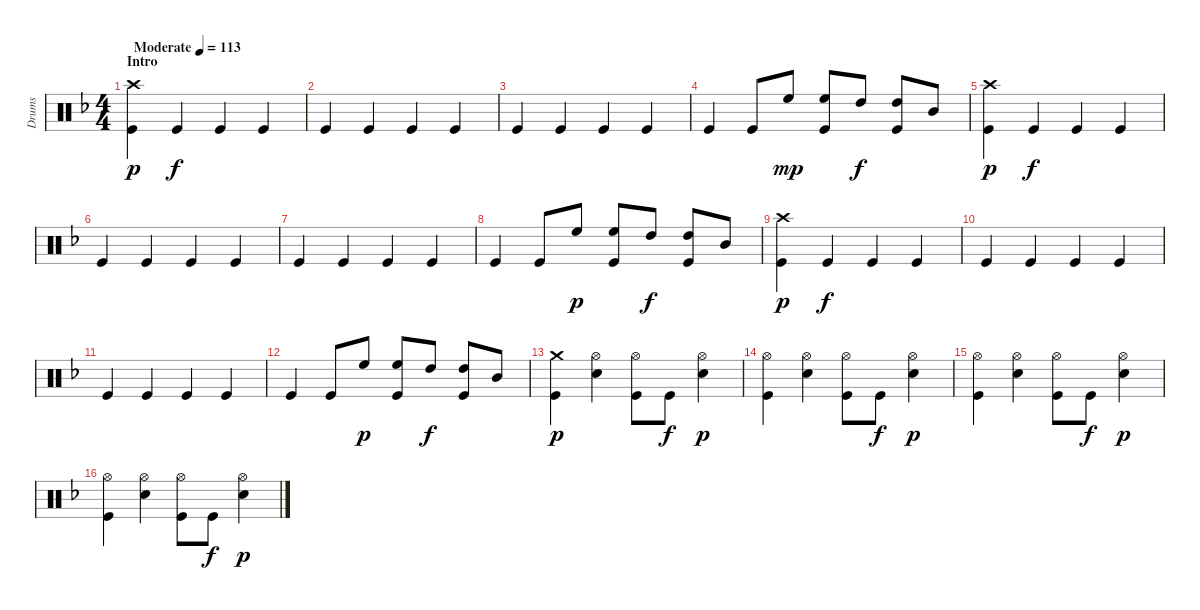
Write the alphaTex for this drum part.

\track ("Drums" "Drums") {instrument percussion}
\staff {score}
\articulation defaults
\ts (4 4)
\section ("" "Intro")
\tempo (113 "Moderate")
\clef neutral
\ks dminor
("Kick (hit)" "Crash high (hit)").4{dy p} "Kick (hit)".4{dy f} "Kick (hit)".4 "Kick (hit)".4 |
"Kick (hit)".4 "Kick (hit)".4 "Kick (hit)".4 "Kick (hit)".4 |
"Kick (hit)".4 "Kick (hit)".4 "Kick (hit)".4 "Kick (hit)".4 |
"Kick (hit)".4 "Kick (hit)".8 "High Floor Tom (hit)".8{dy mp} ("Kick (hit)" "High Floor Tom (hit)").8 "High Tom (hit)".8{dy f} ("Kick (hit)" "High Tom (hit)").8 "Mid Tom (hit)".8 |
("Kick (hit)" "Crash high (hit)").4{dy p} "Kick (hit)".4{dy f} "Kick (hit)".4 "Kick (hit)".4 |
"Kick (hit)".4 "Kick (hit)".4 "Kick (hit)".4 "Kick (hit)".4 |
"Kick (hit)".4 "Kick (hit)".4 "Kick (hit)".4 "Kick (hit)".4 |
"Kick (hit)".4 "Kick (hit)".8 "High Floor Tom (hit)".8{dy p} ("Kick (hit)" "High Floor Tom (hit)").8 "High Tom (hit)".8{dy f} ("Kick (hit)" "High Tom (hit)").8 "Mid Tom (hit)".8 |
("Kick (hit)" "Crash high (hit)").4{dy p} "Kick (hit)".4{dy f} "Kick (hit)".4 "Kick (hit)".4 |
"Kick (hit)".4 "Kick (hit)".4 "Kick (hit)".4 "Kick (hit)".4 |
"Kick (hit)".4 "Kick (hit)".4 "Kick (hit)".4 "Kick (hit)".4 |
"Kick (hit)".4 "Kick (hit)".8 "High Floor Tom (hit)".8{dy p} ("Kick (hit)" "High Floor Tom (hit)").8 "High Tom (hit)".8{dy f} ("Kick (hit)" "High Tom (hit)").8 "Mid Tom (hit)".8 |
("Kick (hit)" "Crash medium (hit)").4{dy p} ("Hi-Hat (open)" "Electric Snare (hit)").4 ("Kick (hit)" "Hi-Hat (open)").8 "Kick (hit)".8{dy f} ("Electric Snare (hit)" "Hi-Hat (open)").4{dy p} |
("Kick (hit)" "Hi-Hat (open)").4 ("Hi-Hat (open)" "Electric Snare (hit)").4 ("Kick (hit)" "Hi-Hat (open)").8 "Kick (hit)".8{dy f} ("Electric Snare (hit)" "Hi-Hat (open)").4{dy p} |
("Kick (hit)" "Hi-Hat (open)").4 ("Hi-Hat (open)" "Electric Snare (hit)").4 ("Kick (hit)" "Hi-Hat (open)").8 "Kick (hit)".8{dy f} ("Electric Snare (hit)" "Hi-Hat (open)").4{dy p} |
("Kick (hit)" "Hi-Hat (open)").4 ("Hi-Hat (open)" "Electric Snare (hit)").4 ("Kick (hit)" "Hi-Hat (open)").8 "Kick (hit)".8{dy f} ("Electric Snare (hit)" "Hi-Hat (open)").4{dy p}
